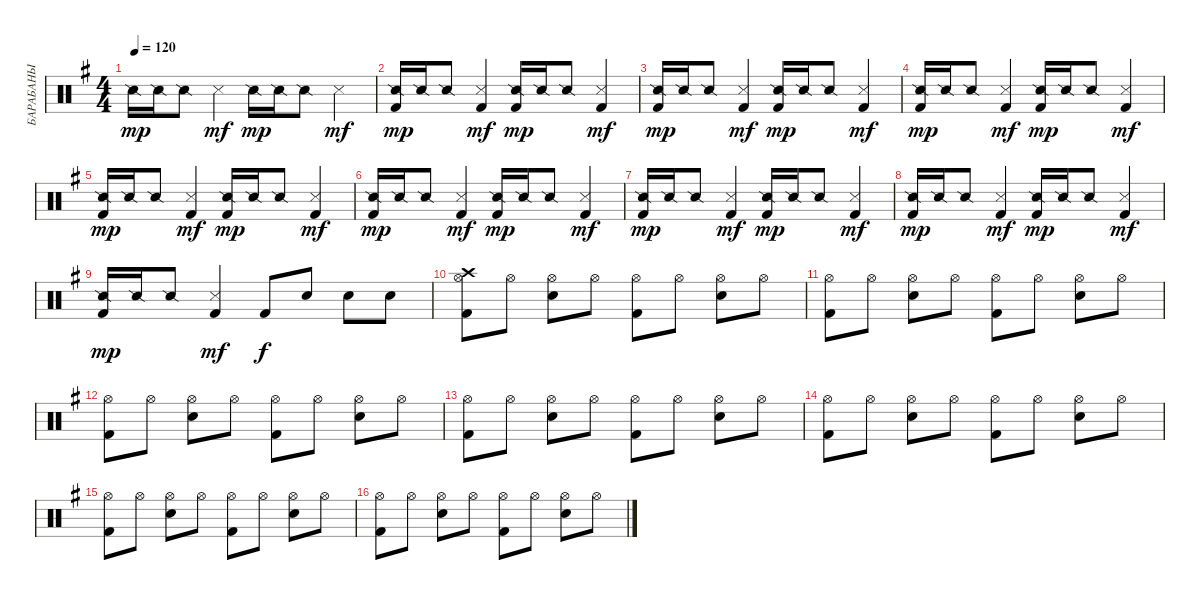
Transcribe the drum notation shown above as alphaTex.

\track ("БАРАБАНЫ" "БАРАБАНЫ") {instrument percussion}
\staff {score}
\articulation defaults
\ts (4 4)
\tempo 120
\clef neutral
\ks g "Snare (side stick) 2".16{dy mp} "Snare (side stick) 2".16 "Snare (side stick) 2".8 "Snare (side stick) 3".4{dy mf} "Snare (side stick) 2".16{dy mp} "Snare (side stick) 2".16 "Snare (side stick) 2".8 "Snare (side stick) 3".4{dy mf}
|
("Snare (side stick) 2" "Kick (hit) 2").16{dy mp} "Snare (side stick) 2".16 "Snare (side stick) 2".8 ("Snare (side stick) 3" "Kick (hit) 2").4{dy mf} ("Snare (side stick) 2" "Kick (hit) 2").16{dy mp} "Snare (side stick) 2".16 "Snare (side stick) 2".8 ("Snare (side stick) 3" "Kick (hit) 2").4{dy mf} |
("Snare (side stick) 2" "Kick (hit) 2").16{dy mp} "Snare (side stick) 2".16 "Snare (side stick) 2".8 ("Snare (side stick) 3" "Kick (hit) 2").4{dy mf} ("Snare (side stick) 2" "Kick (hit) 2").16{dy mp} "Snare (side stick) 2".16 "Snare (side stick) 2".8 ("Snare (side stick) 3" "Kick (hit) 2").4{dy mf} |
("Snare (side stick) 2" "Kick (hit) 2").16{dy mp} "Snare (side stick) 2".16 "Snare (side stick) 2".8 ("Snare (side stick) 3" "Kick (hit) 2").4{dy mf} ("Snare (side stick) 2" "Kick (hit) 2").16{dy mp} "Snare (side stick) 2".16 "Snare (side stick) 2".8 ("Snare (side stick) 3" "Kick (hit) 2").4{dy mf} |
("Snare (side stick) 2" "Kick (hit) 2").16{dy mp} "Snare (side stick) 2".16 "Snare (side stick) 2".8 ("Snare (side stick) 3" "Kick (hit) 2").4{dy mf} ("Snare (side stick) 2" "Kick (hit) 2").16{dy mp} "Snare (side stick) 2".16 "Snare (side stick) 2".8 ("Snare (side stick) 3" "Kick (hit) 2").4{dy mf} |
("Snare (side stick) 2" "Kick (hit) 2").16{dy mp} "Snare (side stick) 2".16 "Snare (side stick) 2".8 ("Snare (side stick) 3" "Kick (hit) 2").4{dy mf} ("Snare (side stick) 2" "Kick (hit) 2").16{dy mp} "Snare (side stick) 2".16 "Snare (side stick) 2".8 ("Snare (side stick) 3" "Kick (hit) 2").4{dy mf} |
("Snare (side stick) 2" "Kick (hit) 2").16{dy mp} "Snare (side stick) 2".16 "Snare (side stick) 2".8 ("Snare (side stick) 3" "Kick (hit) 2").4{dy mf} ("Snare (side stick) 2" "Kick (hit) 2").16{dy mp} "Snare (side stick) 2".16 "Snare (side stick) 2".8 ("Snare (side stick) 3" "Kick (hit) 2").4{dy mf} |
("Snare (side stick) 2" "Kick (hit) 2").16{dy mp} "Snare (side stick) 2".16 "Snare (side stick) 2".8 ("Snare (side stick) 3" "Kick (hit) 2").4{dy mf} ("Snare (side stick) 2" "Kick (hit) 2").16{dy mp} "Snare (side stick) 2".16 "Snare (side stick) 2".8 ("Snare (side stick) 3" "Kick (hit) 2").4{dy mf} |
("Snare (side stick) 2" "Kick (hit) 2").16{dy mp} "Snare (side stick) 2".16 "Snare (side stick) 2".8 ("Snare (side stick) 3" "Kick (hit) 2").4{dy mf} "Kick (hit) 2".8{dy f} "Electric Snare (hit)".8 "Electric Snare (hit)".8 "Electric Snare (hit)".8 |
("Hi-Hat (open)" "Crash high (hit)" "Kick (hit) 2").8 "Hi-Hat (open)".8 ("Hi-Hat (open)" "Electric Snare (hit)").8 "Hi-Hat (open)".8 ("Hi-Hat (open)" "Kick (hit) 2").8 "Hi-Hat (open)".8 ("Hi-Hat (open)" "Electric Snare (hit)").8 "Hi-Hat (open)".8 |
("Hi-Hat (open)" "Kick (hit) 2").8 "Hi-Hat (open)".8 ("Hi-Hat (open)" "Electric Snare (hit)").8 "Hi-Hat (open)".8 ("Hi-Hat (open)" "Kick (hit) 2").8 "Hi-Hat (open)".8 ("Hi-Hat (open)" "Electric Snare (hit)").8 "Hi-Hat (open)".8 |
("Hi-Hat (open)" "Kick (hit) 2").8 "Hi-Hat (open)".8 ("Hi-Hat (open)" "Electric Snare (hit)").8 "Hi-Hat (open)".8 ("Hi-Hat (open)" "Kick (hit) 2").8 "Hi-Hat (open)".8 ("Hi-Hat (open)" "Electric Snare (hit)").8 "Hi-Hat (open)".8 |
("Hi-Hat (open)" "Kick (hit) 2").8 "Hi-Hat (open)".8 ("Hi-Hat (open)" "Electric Snare (hit)").8 "Hi-Hat (open)".8 ("Hi-Hat (open)" "Kick (hit) 2").8 "Hi-Hat (open)".8 ("Hi-Hat (open)" "Electric Snare (hit)").8 "Hi-Hat (open)".8 |
("Hi-Hat (open)" "Kick (hit) 2").8 "Hi-Hat (open)".8 ("Hi-Hat (open)" "Electric Snare (hit)").8 "Hi-Hat (open)".8 ("Hi-Hat (open)" "Kick (hit) 2").8 "Hi-Hat (open)".8 ("Hi-Hat (open)" "Electric Snare (hit)").8 "Hi-Hat (open)".8 |
("Hi-Hat (open)" "Kick (hit) 2").8 "Hi-Hat (open)".8 ("Hi-Hat (open)" "Electric Snare (hit)").8 "Hi-Hat (open)".8 ("Hi-Hat (open)" "Kick (hit) 2").8 "Hi-Hat (open)".8 ("Hi-Hat (open)" "Electric Snare (hit)").8 "Hi-Hat (open)".8 |
("Hi-Hat (open)" "Kick (hit) 2").8 "Hi-Hat (open)".8 ("Hi-Hat (open)" "Electric Snare (hit)").8 "Hi-Hat (open)".8 ("Hi-Hat (open)" "Kick (hit) 2").8 "Hi-Hat (open)".8 ("Hi-Hat (open)" "Electric Snare (hit)").8 "Hi-Hat (open)".8
